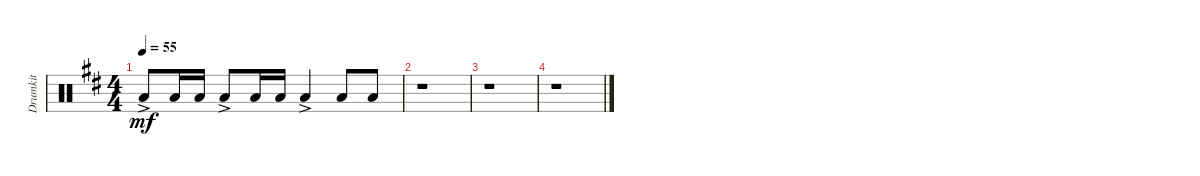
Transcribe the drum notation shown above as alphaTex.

\track ("Drumkit" "Drumkit") {instrument percussion}
\staff {score}
\articulation defaults
\ts (4 4)
\tempo 55
\clef neutral
\ks d "Low Floor Tom (hit)"{ac}.8{dy mf} "Low Tom (hit)".16 "Low Tom (hit)".16 "Low Floor Tom (hit)"{ac}.8 "Low Tom (hit)".16 "Low Tom (hit)".16 "Low Floor Tom (hit)"{ac}.4 "Low Tom (hit)".8 "Low Tom (hit)".8
|
r.1 |
r.1 |
r.1
